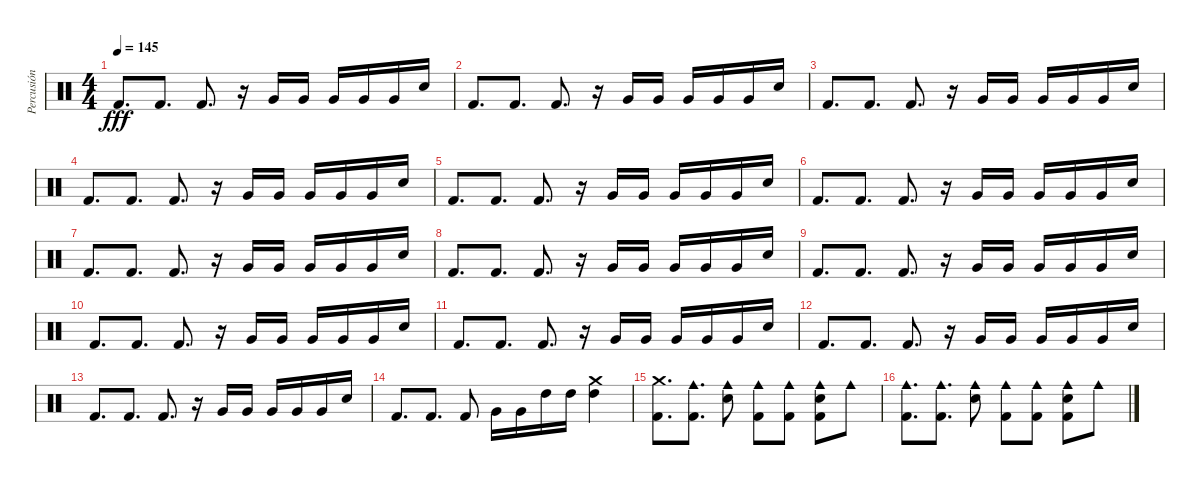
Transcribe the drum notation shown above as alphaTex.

\track ("Percusión" "Percusión") {instrument percussion}
\staff {score}
\articulation defaults
\ts (4 4)
\tempo 145
\clef neutral
\ks c "Kick (hit) 2".8{d dy fff} "Kick (hit) 2".8{d} "Kick (hit) 2".8{d}
r.16 "Very Low Tom (hit)".16 "Very Low Tom (hit)".16 "Very Low Tom (hit)".16 "Very Low Tom (hit)".16 "Very Low Tom (hit)".16 "Electric Snare (hit)".16 |
"Kick (hit) 2".8{d} "Kick (hit) 2".8{d} "Kick (hit) 2".8{d} r.16 "Very Low Tom (hit)".16 "Very Low Tom (hit)".16 "Very Low Tom (hit)".16 "Very Low Tom (hit)".16 "Very Low Tom (hit)".16 "Electric Snare (hit)".16 |
"Kick (hit) 2".8{d} "Kick (hit) 2".8{d} "Kick (hit) 2".8{d} r.16 "Very Low Tom (hit)".16 "Very Low Tom (hit)".16 "Very Low Tom (hit)".16 "Very Low Tom (hit)".16 "Very Low Tom (hit)".16 "Electric Snare (hit)".16 |
"Kick (hit) 2".8{d} "Kick (hit) 2".8{d} "Kick (hit) 2".8{d} r.16 "Very Low Tom (hit)".16 "Very Low Tom (hit)".16 "Very Low Tom (hit)".16 "Very Low Tom (hit)".16 "Very Low Tom (hit)".16 "Electric Snare (hit)".16 |
"Kick (hit) 2".8{d} "Kick (hit) 2".8{d} "Kick (hit) 2".8{d} r.16 "Very Low Tom (hit)".16 "Very Low Tom (hit)".16 "Very Low Tom (hit)".16 "Very Low Tom (hit)".16 "Very Low Tom (hit)".16 "Electric Snare (hit)".16 |
"Kick (hit) 2".8{d} "Kick (hit) 2".8{d} "Kick (hit) 2".8{d} r.16 "Very Low Tom (hit)".16 "Very Low Tom (hit)".16 "Very Low Tom (hit)".16 "Very Low Tom (hit)".16 "Very Low Tom (hit)".16 "Electric Snare (hit)".16 |
"Kick (hit) 2".8{d} "Kick (hit) 2".8{d} "Kick (hit) 2".8{d} r.16 "Very Low Tom (hit)".16 "Very Low Tom (hit)".16 "Very Low Tom (hit)".16 "Very Low Tom (hit)".16 "Very Low Tom (hit)".16 "Electric Snare (hit)".16 |
"Kick (hit) 2".8{d} "Kick (hit) 2".8{d} "Kick (hit) 2".8{d} r.16 "Very Low Tom (hit)".16 "Very Low Tom (hit)".16 "Very Low Tom (hit)".16 "Very Low Tom (hit)".16 "Very Low Tom (hit)".16 "Electric Snare (hit)".16 |
"Kick (hit) 2".8{d} "Kick (hit) 2".8{d} "Kick (hit) 2".8{d} r.16 "Very Low Tom (hit)".16 "Very Low Tom (hit)".16 "Very Low Tom (hit)".16 "Very Low Tom (hit)".16 "Very Low Tom (hit)".16 "Electric Snare (hit)".16 |
"Kick (hit) 2".8{d} "Kick (hit) 2".8{d} "Kick (hit) 2".8{d} r.16 "Very Low Tom (hit)".16 "Very Low Tom (hit)".16 "Very Low Tom (hit)".16 "Very Low Tom (hit)".16 "Very Low Tom (hit)".16 "Electric Snare (hit)".16 |
"Kick (hit) 2".8{d} "Kick (hit) 2".8{d} "Kick (hit) 2".8{d} r.16 "Very Low Tom (hit)".16 "Very Low Tom (hit)".16 "Very Low Tom (hit)".16 "Very Low Tom (hit)".16 "Very Low Tom (hit)".16 "Electric Snare (hit)".16 |
"Kick (hit) 2".8{d} "Kick (hit) 2".8{d} "Kick (hit) 2".8{d} r.16 "Very Low Tom (hit)".16 "Very Low Tom (hit)".16 "Very Low Tom (hit)".16 "Very Low Tom (hit)".16 "Very Low Tom (hit)".16 "Electric Snare (hit)".16 |
"Kick (hit) 2".8{d} "Kick (hit) 2".8{d} "Kick (hit) 2".8{d} r.16 "Very Low Tom (hit)".16 "Very Low Tom (hit)".16 "Very Low Tom (hit)".16 "Very Low Tom (hit)".16 "Very Low Tom (hit)".16 "Electric Snare (hit)".16 |
"Kick (hit) 2".8{d} "Kick (hit) 2".8{d} "Kick (hit) 2".8 "Very Low Tom (hit)".16 "Very Low Tom (hit)".16 "High Tom (hit)".16 "High Tom (hit)".16 ("Crash medium (hit)" "High Tom (hit)").4 |
("Crash medium (hit)" "Kick (hit) 2").8{d} ("Cowbell medium (hit)" "Kick (hit) 2").8{d} ("Cowbell medium (hit)" "Electric Snare (hit)").8 ("Cowbell medium (hit)" "Kick (hit) 2").8 ("Cowbell medium (hit)" "Kick (hit) 2").8 ("Cowbell medium (hit)" "Electric Snare (hit)" "Kick (hit) 2").8 "Cowbell medium (hit)".8 |
("Cowbell medium (hit)" "Kick (hit) 2").8{d} ("Cowbell medium (hit)" "Kick (hit) 2").8{d} ("Cowbell medium (hit)" "Electric Snare (hit)").8 ("Cowbell medium (hit)" "Kick (hit) 2").8 ("Cowbell medium (hit)" "Kick (hit) 2").8 ("Cowbell medium (hit)" "Electric Snare (hit)" "Kick (hit) 2").8 "Cowbell medium (hit)".8
